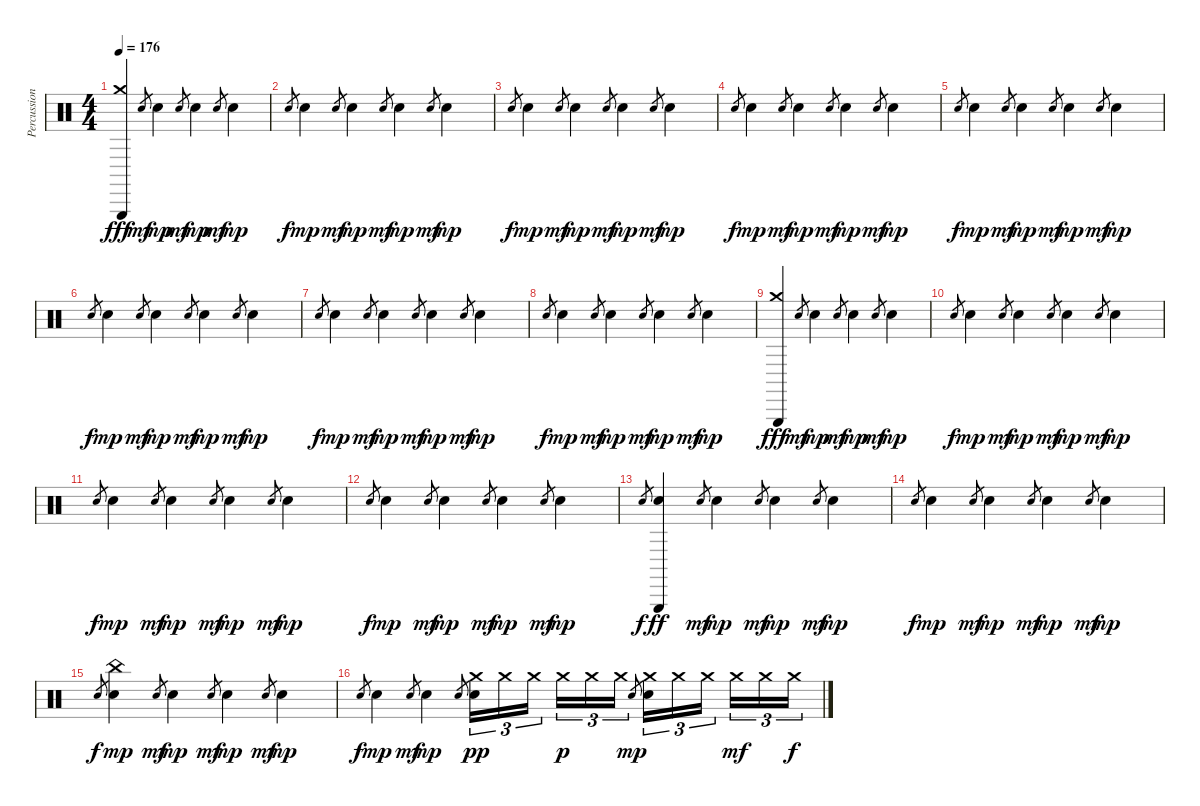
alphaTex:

\track ("Percussion" "Percussion") {instrument percussion}
\staff {score}
\articulation defaults
\ts (4 4)
\tempo 176
\clef neutral
\ks c
("Crash medium (hit)" "Triangle (hit)").4{dy fff} "Hand Clap (hit)".8{gr dy mf} "Hand Clap (hit)".4{dy mp} "Hand Clap (hit)".8{gr dy mf} "Hand Clap (hit)".4{dy mp} "Hand Clap (hit)".8{gr dy mf} "Hand Clap (hit)".4{dy mp} |
"Hand Clap (hit)".8{gr dy f} "Hand Clap (hit)".4{dy mp} "Hand Clap (hit)".8{gr dy mf} "Hand Clap (hit)".4{dy mp} "Hand Clap (hit)".8{gr dy mf} "Hand Clap (hit)".4{dy mp} "Hand Clap (hit)".8{gr dy mf} "Hand Clap (hit)".4{dy mp} |
"Hand Clap (hit)".8{gr dy f} "Hand Clap (hit)".4{dy mp} "Hand Clap (hit)".8{gr dy mf} "Hand Clap (hit)".4{dy mp} "Hand Clap (hit)".8{gr dy mf} "Hand Clap (hit)".4{dy mp} "Hand Clap (hit)".8{gr dy mf} "Hand Clap (hit)".4{dy mp} |
"Hand Clap (hit)".8{gr dy f} "Hand Clap (hit)".4{dy mp} "Hand Clap (hit)".8{gr dy mf} "Hand Clap (hit)".4{dy mp} "Hand Clap (hit)".8{gr dy mf} "Hand Clap (hit)".4{dy mp} "Hand Clap (hit)".8{gr dy mf} "Hand Clap (hit)".4{dy mp} |
"Hand Clap (hit)".8{gr dy f} "Hand Clap (hit)".4{dy mp} "Hand Clap (hit)".8{gr dy mf} "Hand Clap (hit)".4{dy mp} "Hand Clap (hit)".8{gr dy mf} "Hand Clap (hit)".4{dy mp} "Hand Clap (hit)".8{gr dy mf} "Hand Clap (hit)".4{dy mp} |
"Hand Clap (hit)".8{gr dy f} "Hand Clap (hit)".4{dy mp} "Hand Clap (hit)".8{gr dy mf} "Hand Clap (hit)".4{dy mp} "Hand Clap (hit)".8{gr dy mf} "Hand Clap (hit)".4{dy mp} "Hand Clap (hit)".8{gr dy mf} "Hand Clap (hit)".4{dy mp} |
"Hand Clap (hit)".8{gr dy f} "Hand Clap (hit)".4{dy mp} "Hand Clap (hit)".8{gr dy mf} "Hand Clap (hit)".4{dy mp} "Hand Clap (hit)".8{gr dy mf} "Hand Clap (hit)".4{dy mp} "Hand Clap (hit)".8{gr dy mf} "Hand Clap (hit)".4{dy mp} |
"Hand Clap (hit)".8{gr dy f} "Hand Clap (hit)".4{dy mp} "Hand Clap (hit)".8{gr dy mf} "Hand Clap (hit)".4{dy mp} "Hand Clap (hit)".8{gr dy mf} "Hand Clap (hit)".4{dy mp} "Hand Clap (hit)".8{gr dy mf} "Hand Clap (hit)".4{dy mp} |
("Crash medium (hit)" "Triangle (hit)").4{dy fff} "Hand Clap (hit)".8{gr dy mf} "Hand Clap (hit)".4{dy mp} "Hand Clap (hit)".8{gr dy mf} "Hand Clap (hit)".4{dy mp} "Hand Clap (hit)".8{gr dy mf} "Hand Clap (hit)".4{dy mp} |
"Hand Clap (hit)".8{gr dy f} "Hand Clap (hit)".4{dy mp} "Hand Clap (hit)".8{gr dy mf} "Hand Clap (hit)".4{dy mp} "Hand Clap (hit)".8{gr dy mf} "Hand Clap (hit)".4{dy mp} "Hand Clap (hit)".8{gr dy mf} "Hand Clap (hit)".4{dy mp} |
"Hand Clap (hit)".8{gr dy f} "Hand Clap (hit)".4{dy mp} "Hand Clap (hit)".8{gr dy mf} "Hand Clap (hit)".4{dy mp} "Hand Clap (hit)".8{gr dy mf} "Hand Clap (hit)".4{dy mp} "Hand Clap (hit)".8{gr dy mf} "Hand Clap (hit)".4{dy mp} |
"Hand Clap (hit)".8{gr dy f} "Hand Clap (hit)".4{dy mp} "Hand Clap (hit)".8{gr dy mf} "Hand Clap (hit)".4{dy mp} "Hand Clap (hit)".8{gr dy mf} "Hand Clap (hit)".4{dy mp} "Hand Clap (hit)".8{gr dy mf} "Hand Clap (hit)".4{dy mp} |
"Hand Clap (hit)".8{gr dy f} ("Hand Clap (hit)" "Triangle (hit)").4{dy ff} "Hand Clap (hit)".8{gr dy mf} "Hand Clap (hit)".4{dy mp} "Hand Clap (hit)".8{gr dy mf} "Hand Clap (hit)".4{dy mp} "Hand Clap (hit)".8{gr dy mf} "Hand Clap (hit)".4{dy mp} |
"Hand Clap (hit)".8{gr dy f} "Hand Clap (hit)".4{dy mp} "Hand Clap (hit)".8{gr dy mf} "Hand Clap (hit)".4{dy mp} "Hand Clap (hit)".8{gr dy mf} "Hand Clap (hit)".4{dy mp} "Hand Clap (hit)".8{gr dy mf} "Hand Clap (hit)".4{dy mp} |
"Hand Clap (hit)".8{gr dy f} ("Hand Clap (hit)" "China (hit)").4{dy mp} "Hand Clap (hit)".8{gr dy mf} "Hand Clap (hit)".4{dy mp} "Hand Clap (hit)".8{gr dy mf} "Hand Clap (hit)".4{dy mp} "Hand Clap (hit)".8{gr dy mf} "Hand Clap (hit)".4{dy mp} |
"Hand Clap (hit)".8{gr dy f} "Hand Clap (hit)".4{dy mp} "Hand Clap (hit)".8{gr dy mf} "Hand Clap (hit)".4{dy mp} "Hand Clap (hit)".8{gr} ("Hand Clap (hit)" "Crash medium (hit)").16{tu (3 2) dy pp} "Crash medium (hit)".16{tu (3 2)} "Crash medium (hit)".16{tu (3 2)} "Crash medium (hit)".16{tu (3 2) dy p} "Crash medium (hit)".16{tu (3 2)} "Crash medium (hit)".16{tu (3 2)} "Hand Clap (hit)".8{gr dy mp} ("Hand Clap (hit)" "Crash medium (hit)").16{tu (3 2)} "Crash medium (hit)".16{tu (3 2)} "Crash medium (hit)".16{tu (3 2)} "Crash medium (hit)".16{tu (3 2) dy mf} "Crash medium (hit)".16{tu (3 2)} "Crash medium (hit)".16{tu (3 2) dy f}
